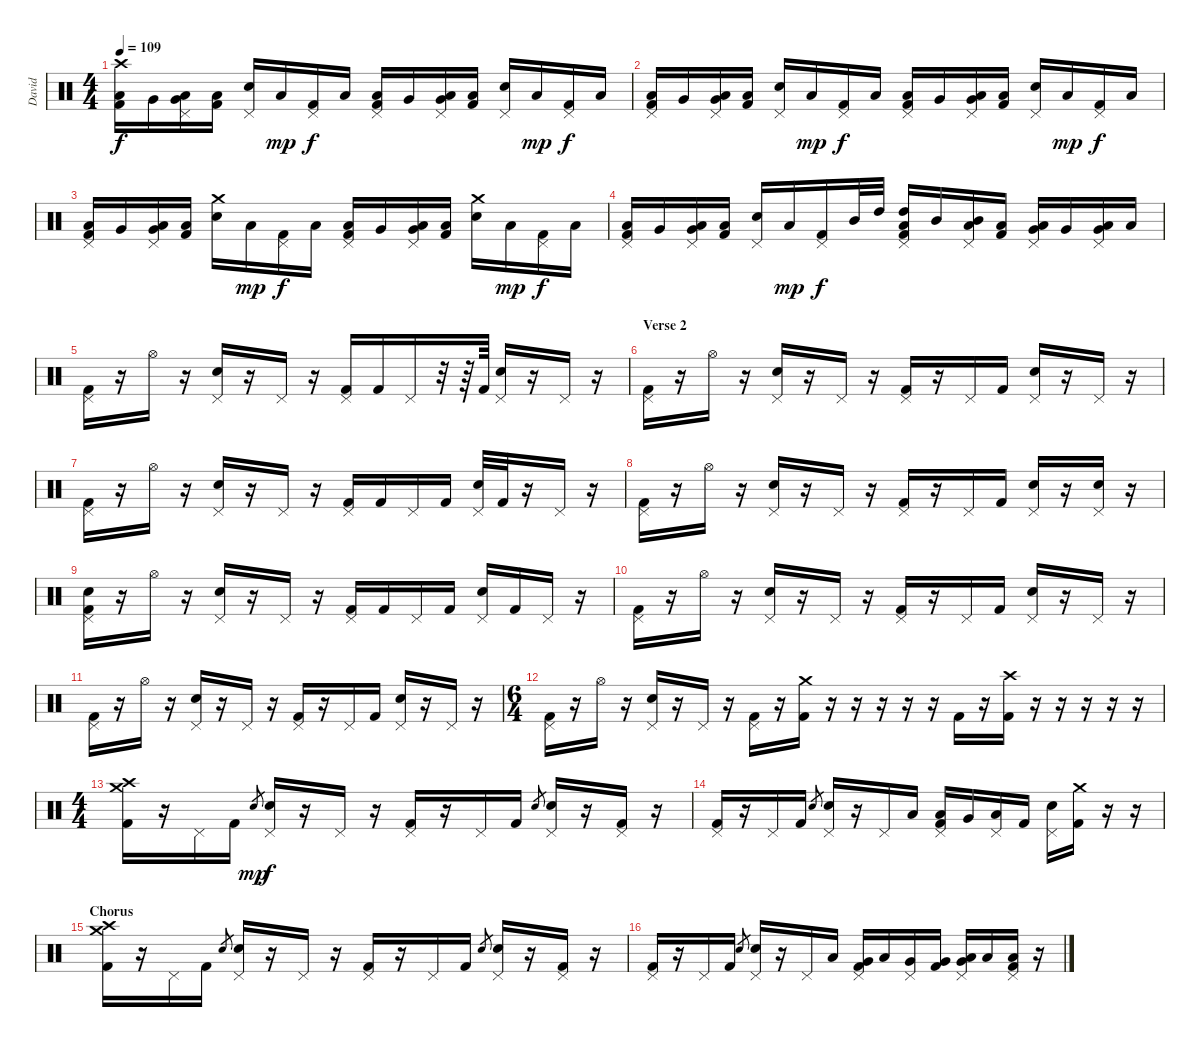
\track ("David" "David") {instrument percussion}
\staff {score}
\articulation defaults
\ts (4 4)
\tempo 109
\clef neutral
\ks c
("Crash high (hit)" "Low Tom (hit)" "Kick (hit) 2").16{dy f} "Very Low Tom (hit)".16 ("Pedal Hi-Hat (hit)" "Very Low Tom (hit)" "Low Floor Tom (hit)").16 ("Low Floor Tom (hit)" "Kick (hit) 2").16 ("Pedal Hi-Hat (hit)" "Snare (hit) 2").16 "Low Floor Tom (hit)".16{dy mp} ("Pedal Hi-Hat (hit)" "Kick (hit) 2").16{dy f} "Low Tom (hit)".16 ("Pedal Hi-Hat (hit)" "Low Tom (hit)" "Kick (hit) 2").16 "Very Low Tom (hit)".16 ("Pedal Hi-Hat (hit)" "Very Low Tom (hit)" "Low Floor Tom (hit)").16 ("Low Floor Tom (hit)" "Kick (hit) 2").16 ("Pedal Hi-Hat (hit)" "Snare (hit) 2").16 "Low Floor Tom (hit)".16{dy mp} ("Pedal Hi-Hat (hit)" "Kick (hit) 2").16{dy f} "Low Tom (hit)".16 |
("Pedal Hi-Hat (hit)" "Low Tom (hit)" "Kick (hit) 2").16 "Very Low Tom (hit)".16 ("Pedal Hi-Hat (hit)" "Very Low Tom (hit)" "Low Floor Tom (hit)").16 ("Low Floor Tom (hit)" "Kick (hit) 2").16 ("Pedal Hi-Hat (hit)" "Snare (hit) 2").16 "Low Floor Tom (hit)".16{dy mp} ("Pedal Hi-Hat (hit)" "Kick (hit) 2").16{dy f} "Low Tom (hit)".16 ("Pedal Hi-Hat (hit)" "Low Tom (hit)" "Kick (hit) 2").16 "Very Low Tom (hit)".16 ("Pedal Hi-Hat (hit)" "Very Low Tom (hit)" "Low Floor Tom (hit)").16 ("Low Floor Tom (hit)" "Kick (hit) 2").16 ("Pedal Hi-Hat (hit)" "Snare (hit) 2").16 "Low Floor Tom (hit)".16{dy mp} ("Pedal Hi-Hat (hit)" "Kick (hit) 2").16{dy f} "Low Tom (hit)".16 |
("Pedal Hi-Hat (hit)" "Low Tom (hit)" "Kick (hit) 2").16 "Very Low Tom (hit)".16 ("Pedal Hi-Hat (hit)" "Very Low Tom (hit)" "Low Floor Tom (hit)").16 ("Low Floor Tom (hit)" "Kick (hit) 2").16 ("Crash medium (hit)" "Snare (hit) 2").16 "Low Floor Tom (hit)".16{dy mp} ("Pedal Hi-Hat (hit)" "Kick (hit) 2").16{dy f} "Low Tom (hit)".16 ("Pedal Hi-Hat (hit)" "Low Tom (hit)" "Kick (hit) 2").16 "Very Low Tom (hit)".16 ("Pedal Hi-Hat (hit)" "Very Low Tom (hit)" "Low Floor Tom (hit)").16 ("Low Floor Tom (hit)" "Kick (hit) 2").16 ("Crash medium (hit)" "Snare (hit) 2").16 "Low Floor Tom (hit)".16{dy mp} ("Pedal Hi-Hat (hit)" "Kick (hit) 2").16{dy f} "Low Tom (hit)".16 |
("Pedal Hi-Hat (hit)" "Low Tom (hit)" "Kick (hit) 2").16 "Very Low Tom (hit)".16 ("Pedal Hi-Hat (hit)" "Very Low Tom (hit)" "Low Floor Tom (hit)").16 ("Low Floor Tom (hit)" "Kick (hit) 2").16 ("Pedal Hi-Hat (hit)" "Snare (hit) 2").16 "Low Floor Tom (hit)".16{dy mp} ("Pedal Hi-Hat (hit)" "Kick (hit) 2").16{dy f} "Mid Tom (hit)".32 "High Tom (hit)".32 ("Pedal Hi-Hat (hit)" "High Tom (hit)" "Low Tom (hit)" "Kick (hit) 2").16 "Mid Tom (hit)".16 ("Pedal Hi-Hat (hit)" "Mid Tom (hit)" "Low Tom (hit)").16 ("Low Tom (hit)" "Kick (hit) 2").16 ("Pedal Hi-Hat (hit)" "Very Low Tom (hit)" "Low Tom (hit)").16 "Very Low Tom (hit)".16 ("Pedal Hi-Hat (hit)" "Very Low Tom (hit)" "Low Floor Tom (hit)").16 "Low Floor Tom (hit)".16 |
("Pedal Hi-Hat (hit)" "Kick (hit) 2").16 r.16 "Hi-Hat (open)".16 r.16 ("Pedal Hi-Hat (hit)" "Snare (hit) 2").16 r.16 "Pedal Hi-Hat (hit)".16 r.16 ("Pedal Hi-Hat (hit)" "Kick (hit) 2").16 "Kick (hit) 2".16 "Pedal Hi-Hat (hit)".16 r.32 r.64 "Kick (hit) 2".64 ("Pedal Hi-Hat (hit)" "Snare (hit) 2").16 r.16 "Pedal Hi-Hat (hit)".16 r.16 |
\section ("" "Verse 2")
("Pedal Hi-Hat (hit)" "Kick (hit) 2").16 r.16 "Hi-Hat (open)".16 r.16 ("Pedal Hi-Hat (hit)" "Snare (hit) 2").16 r.16 "Pedal Hi-Hat (hit)".16 r.16 ("Pedal Hi-Hat (hit)" "Kick (hit) 2").16 r.16 "Pedal Hi-Hat (hit)".16 "Kick (hit) 2".16 ("Pedal Hi-Hat (hit)" "Snare (hit) 2").16 r.16 "Pedal Hi-Hat (hit)".16 r.16 |
("Pedal Hi-Hat (hit)" "Kick (hit) 2").16 r.16 "Hi-Hat (open)".16 r.16 ("Pedal Hi-Hat (hit)" "Snare (hit) 2").16 r.16 "Pedal Hi-Hat (hit)".16 r.16 ("Pedal Hi-Hat (hit)" "Kick (hit) 2").16 "Kick (hit) 2".16 "Pedal Hi-Hat (hit)".16 "Kick (hit) 2".16 ("Pedal Hi-Hat (hit)" "Snare (hit) 2").32 "Kick (hit) 2".32 r.16 "Pedal Hi-Hat (hit)".16 r.16 |
("Pedal Hi-Hat (hit)" "Kick (hit) 2").16 r.16 "Hi-Hat (open)".16 r.16 ("Pedal Hi-Hat (hit)" "Snare (hit) 2").16 r.16 "Pedal Hi-Hat (hit)".16 r.16 ("Pedal Hi-Hat (hit)" "Kick (hit) 2").16 r.16 "Pedal Hi-Hat (hit)".16 "Kick (hit) 2".16 ("Pedal Hi-Hat (hit)" "Snare (hit) 2").16 r.16 ("Pedal Hi-Hat (hit)" "Snare (hit) 2").16 r.16 |
("Pedal Hi-Hat (hit)" "Snare (hit) 2" "Kick (hit) 2").16 r.16 "Hi-Hat (open)".16 r.16 ("Pedal Hi-Hat (hit)" "Snare (hit) 2").16 r.16 "Pedal Hi-Hat (hit)".16 r.16 ("Pedal Hi-Hat (hit)" "Kick (hit) 2").16 "Kick (hit) 2".16 "Pedal Hi-Hat (hit)".16 "Kick (hit) 2".16 ("Pedal Hi-Hat (hit)" "Snare (hit) 2").16 "Kick (hit) 2".16 "Pedal Hi-Hat (hit)".16 r.16 |
("Pedal Hi-Hat (hit)" "Kick (hit) 2").16 r.16 "Hi-Hat (open)".16 r.16 ("Pedal Hi-Hat (hit)" "Snare (hit) 2").16 r.16 "Pedal Hi-Hat (hit)".16 r.16 ("Pedal Hi-Hat (hit)" "Kick (hit) 2").16 r.16 "Pedal Hi-Hat (hit)".16 "Kick (hit) 2".16 ("Pedal Hi-Hat (hit)" "Snare (hit) 2").16 r.16 "Pedal Hi-Hat (hit)".16 r.16 |
("Pedal Hi-Hat (hit)" "Kick (hit) 2").16 r.16 "Hi-Hat (open)".16 r.16 ("Pedal Hi-Hat (hit)" "Snare (hit) 2").16 r.16 "Pedal Hi-Hat (hit)".16 r.16 ("Pedal Hi-Hat (hit)" "Kick (hit) 2").16 r.16 "Pedal Hi-Hat (hit)".16 "Kick (hit) 2".16 ("Pedal Hi-Hat (hit)" "Snare (hit) 2").16 r.16 "Pedal Hi-Hat (hit)".16 r.16 |
\ts (6 4)
("Pedal Hi-Hat (hit)" "Kick (hit) 2").16 r.16 "Hi-Hat (open)".16 r.16 ("Pedal Hi-Hat (hit)" "Snare (hit) 2").16 r.16 "Pedal Hi-Hat (hit)".16 r.16 ("Pedal Hi-Hat (hit)" "Kick (hit) 2").16 r.16 ("Crash medium (hit)" "Kick (hit) 2").16 r.16 r.16 r.16 r.16 r.16 "Kick (hit) 2".16 r.16 ("Crash high (hit)" "Kick (hit) 2").16 r.16 r.16 r.16 r.16 r.16 |
\ts (4 4)
("Crash medium (hit)" "Crash high (hit)" "Kick (hit) 2").16 r.16 "Pedal Hi-Hat (hit)".16 "Kick (hit) 2".16 "Snare (hit) 2".8{gr dy mp} ("Pedal Hi-Hat (hit)" "Snare (hit) 2").16{dy f} r.16 "Pedal Hi-Hat (hit)".16 r.16 ("Pedal Hi-Hat (hit)" "Kick (hit) 2").16 r.16 "Pedal Hi-Hat (hit)".16 "Kick (hit) 2".16 "Snare (hit) 2".8{gr} ("Pedal Hi-Hat (hit)" "Snare (hit) 2").16 r.16 ("Pedal Hi-Hat (hit)" "Kick (hit) 2").16 r.16 |
("Pedal Hi-Hat (hit)" "Kick (hit) 2").16 r.16 "Pedal Hi-Hat (hit)".16 "Kick (hit) 2".16 "Snare (hit) 2".8{gr} ("Pedal Hi-Hat (hit)" "Snare (hit) 2").16 r.16 "Pedal Hi-Hat (hit)".16 "Low Tom (hit)".16 ("Pedal Hi-Hat (hit)" "Low Tom (hit)" "Kick (hit) 2").16 "Very Low Tom (hit)".16 ("Pedal Hi-Hat (hit)" "Low Floor Tom (hit)").16 "Kick (hit) 2".16 ("Pedal Hi-Hat (hit)" "Snare (hit) 2").16 ("Crash medium (hit)" "Kick (hit) 2").16 r.16 r.16 |
\section ("" "Chorus")
("Crash medium (hit)" "Crash high (hit)" "Kick (hit) 2").16 r.16 "Pedal Hi-Hat (hit)".16 "Kick (hit) 2".16 "Snare (hit) 2".8{gr} ("Pedal Hi-Hat (hit)" "Snare (hit) 2").16 r.16 "Pedal Hi-Hat (hit)".16 r.16 ("Pedal Hi-Hat (hit)" "Kick (hit) 2").16 r.16 "Pedal Hi-Hat (hit)".16 "Kick (hit) 2".16 "Snare (hit) 2".8{gr} ("Pedal Hi-Hat (hit)" "Snare (hit) 2").16 r.16 ("Pedal Hi-Hat (hit)" "Kick (hit) 2").16 r.16 |
("Pedal Hi-Hat (hit)" "Kick (hit) 2").16 r.16 "Pedal Hi-Hat (hit)".16 "Kick (hit) 2".16 "Snare (hit) 2".8{gr} ("Pedal Hi-Hat (hit)" "Snare (hit) 2").16 r.16 "Pedal Hi-Hat (hit)".16 "Low Tom (hit)".16 ("Pedal Hi-Hat (hit)" "Very Low Tom (hit)" "Kick (hit) 2").16 "Low Tom (hit)".16 ("Pedal Hi-Hat (hit)" "Very Low Tom (hit)").16 ("Very Low Tom (hit)" "Kick (hit) 2").16 ("Pedal Hi-Hat (hit)" "Very Low Tom (hit)" "Low Floor Tom (hit)").16 "Low Floor Tom (hit)".16 ("Pedal Hi-Hat (hit)" "Low Floor Tom (hit)" "Kick (hit) 2").16 r.16
